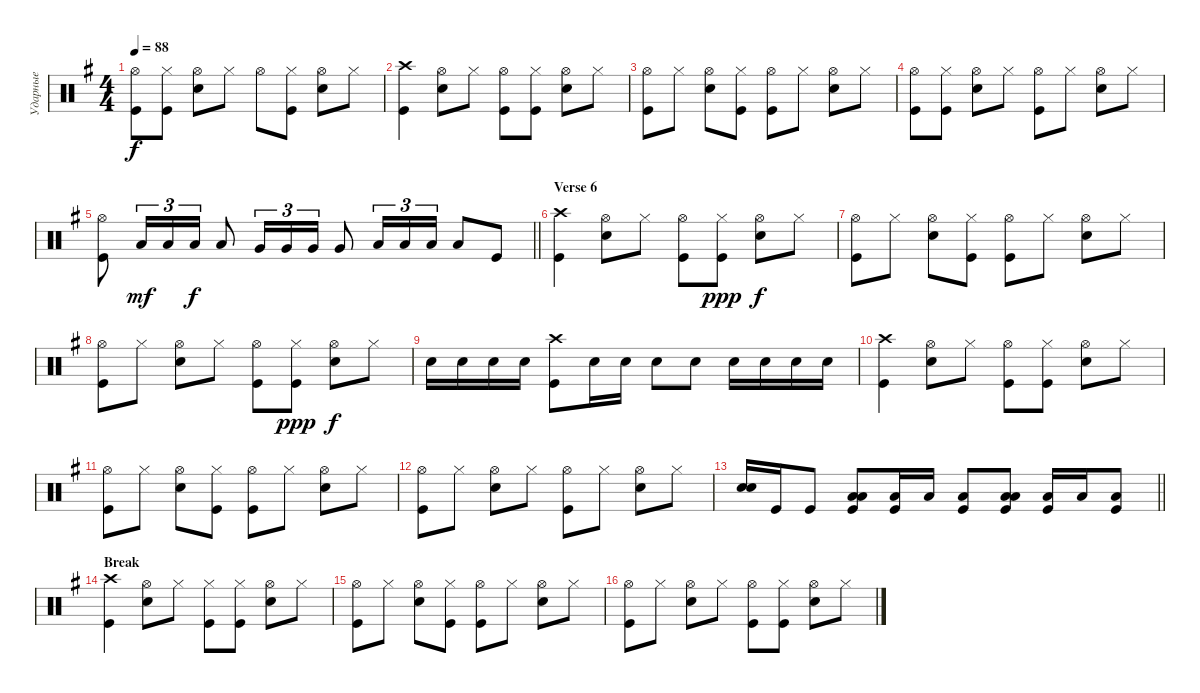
\track ("Ударные" "Ударные") {instrument percussion}
\staff {score}
\articulation defaults
\ts (4 4)
\tempo 88
\clef neutral
\ks eminor
("Kick (hit)" "Hi-Hat (open)").8{dy f} ("Hi-Hat (closed)" "Kick (hit)").8 ("Hi-Hat (open)" "Snare (hit) 2").8 "Hi-Hat (closed)".8 "Hi-Hat (open)".8 ("Hi-Hat (closed)" "Kick (hit)").8 ("Hi-Hat (open)" "Snare (hit) 2").8 "Hi-Hat (closed)".8 |
("Kick (hit)" "Crash high (hit)").4 ("Snare (hit) 2" "Hi-Hat (open)").8 "Hi-Hat (closed)".8 ("Hi-Hat (open)" "Kick (hit)").8 ("Hi-Hat (closed)" "Kick (hit)").8 ("Snare (hit) 2" "Hi-Hat (open)").8 "Hi-Hat (closed)".8 |
("Kick (hit)" "Hi-Hat (open)").8 "Hi-Hat (closed)".8 ("Hi-Hat (open)" "Snare (hit) 2").8 ("Hi-Hat (closed)" "Kick (hit)").8 ("Kick (hit)" "Hi-Hat (open)").8 "Hi-Hat (closed)".8 ("Hi-Hat (open)" "Snare (hit) 2").8 "Hi-Hat (closed)".8 |
("Kick (hit)" "Hi-Hat (open)").8 ("Hi-Hat (closed)" "Kick (hit)").8 ("Hi-Hat (open)" "Snare (hit) 2").8 "Hi-Hat (closed)".8 ("Kick (hit)" "Hi-Hat (open)").8 "Hi-Hat (closed)".8 ("Hi-Hat (open)" "Snare (hit) 2").8 "Hi-Hat (closed)".8 |
\barLineRight lightlight
("Kick (hit)" "Hi-Hat (open)").8 "Low Tom (hit)".16{tu (3 2) dy mf} "Low Tom (hit)".16{tu (3 2)} "Low Tom (hit)".16{tu (3 2) dy f} "Low Tom (hit)".8 "Very Low Tom (hit)".16{tu (3 2)} "Very Low Tom (hit)".16{tu (3 2)} "Very Low Tom (hit)".16{tu (3 2)} "Very Low Tom (hit)".8 "Low Floor Tom (hit)".16{tu (3 2)} "Low Floor Tom (hit)".16{tu (3 2)} "Low Floor Tom (hit)".16{tu (3 2)} "Low Floor Tom (hit)".8 "Kick (hit)".8 |
\section ("" "Verse 6")
("Kick (hit)" "Crash high (hit)").4 ("Snare (hit) 2" "Hi-Hat (open)").8 "Hi-Hat (closed)".8 ("Hi-Hat (open)" "Kick (hit)").8 ("Hi-Hat (closed)" "Kick (hit)").8{dy ppp} ("Snare (hit) 2" "Hi-Hat (open)").8{dy f} "Hi-Hat (closed)".8 |
("Kick (hit)" "Hi-Hat (open)").8 "Hi-Hat (closed)".8 ("Hi-Hat (open)" "Snare (hit) 2").8 ("Hi-Hat (closed)" "Kick (hit)").8 ("Kick (hit)" "Hi-Hat (open)").8 "Hi-Hat (closed)".8 ("Hi-Hat (open)" "Snare (hit) 2").8 "Hi-Hat (closed)".8 |
("Kick (hit)" "Hi-Hat (open)").8 "Hi-Hat (closed)".8 ("Hi-Hat (open)" "Snare (hit) 2").8 "Hi-Hat (closed)".8 ("Kick (hit)" "Hi-Hat (open)").8 ("Hi-Hat (closed)" "Kick (hit)").8{dy ppp} ("Hi-Hat (open)" "Snare (hit) 2").8{dy f} "Hi-Hat (closed)".8 |
"Snare (hit) 2".16 "Snare (hit) 2".16 "Snare (hit) 2".16 "Snare (hit) 2".16 ("Kick (hit)" "Crash high (hit)").8 "Snare (hit) 2".16 "Snare (hit) 2".16 "Snare (hit) 2".8 "Snare (hit) 2".8 "Snare (hit) 2".16 "Snare (hit) 2".16 "Snare (hit) 2".16 "Snare (hit) 2".16 |
("Kick (hit)" "Crash high (hit)").4 ("Snare (hit) 2" "Hi-Hat (open)").8 "Hi-Hat (closed)".8 ("Hi-Hat (open)" "Kick (hit)").8 ("Hi-Hat (closed)" "Kick (hit)").8 ("Snare (hit) 2" "Hi-Hat (open)").8 "Hi-Hat (closed)".8 |
("Kick (hit)" "Hi-Hat (open)").8 "Hi-Hat (closed)".8 ("Hi-Hat (open)" "Snare (hit) 2").8 ("Hi-Hat (closed)" "Kick (hit)").8 ("Kick (hit)" "Hi-Hat (open)").8 "Hi-Hat (closed)".8 ("Hi-Hat (open)" "Snare (hit) 2").8 "Hi-Hat (closed)".8 |
("Kick (hit)" "Hi-Hat (open)").8 "Hi-Hat (closed)".8 ("Hi-Hat (open)" "Snare (hit) 2").8 "Hi-Hat (closed)".8 ("Kick (hit)" "Hi-Hat (open)").8 "Hi-Hat (closed)".8 ("Hi-Hat (open)" "Snare (hit) 2").8 "Hi-Hat (closed)".8 |
\barLineRight lightlight
("Snare (hit) 2" "Snare (hit) 2").16{bd 240} "Kick (hit)".16 "Kick (hit)".8 ("Low Tom (hit)" "Low Tom (hit)" "Kick (hit)").8{bd 240} ("Kick (hit)" "Low Tom (hit)").16{bd 240} "Low Tom (hit)".16 ("Low Tom (hit)" "Kick (hit)").8 ("Low Floor Tom (hit)" "Low Floor Tom (hit)" "Kick (hit)").8{bd 240} ("Kick (hit)" "Low Floor Tom (hit)").16{bd 240} "Low Floor Tom (hit)".16 ("Low Floor Tom (hit)" "Kick (hit)").8{bd 240} |
\section ("" "Break")
("Kick (hit)" "Crash high (hit)").4 ("Snare (hit) 2" "Hi-Hat (open)").8 "Hi-Hat (closed)".8 ("Hi-Hat (closed)" "Kick (hit)").8 ("Hi-Hat (closed)" "Kick (hit)").8 ("Snare (hit) 2" "Hi-Hat (open)").8 "Hi-Hat (closed)".8 |
("Kick (hit)" "Hi-Hat (open)").8 "Hi-Hat (closed)".8 ("Hi-Hat (open)" "Snare (hit) 2").8 ("Hi-Hat (closed)" "Kick (hit)").8 ("Kick (hit)" "Hi-Hat (open)").8 "Hi-Hat (closed)".8 ("Hi-Hat (open)" "Snare (hit) 2").8 "Hi-Hat (closed)".8 |
("Kick (hit)" "Hi-Hat (open)").8 "Hi-Hat (closed)".8 ("Hi-Hat (open)" "Snare (hit) 2").8 "Hi-Hat (closed)".8 ("Kick (hit)" "Hi-Hat (open)").8 ("Hi-Hat (closed)" "Kick (hit)").8 ("Hi-Hat (open)" "Snare (hit) 2").8 "Hi-Hat (closed)".8
